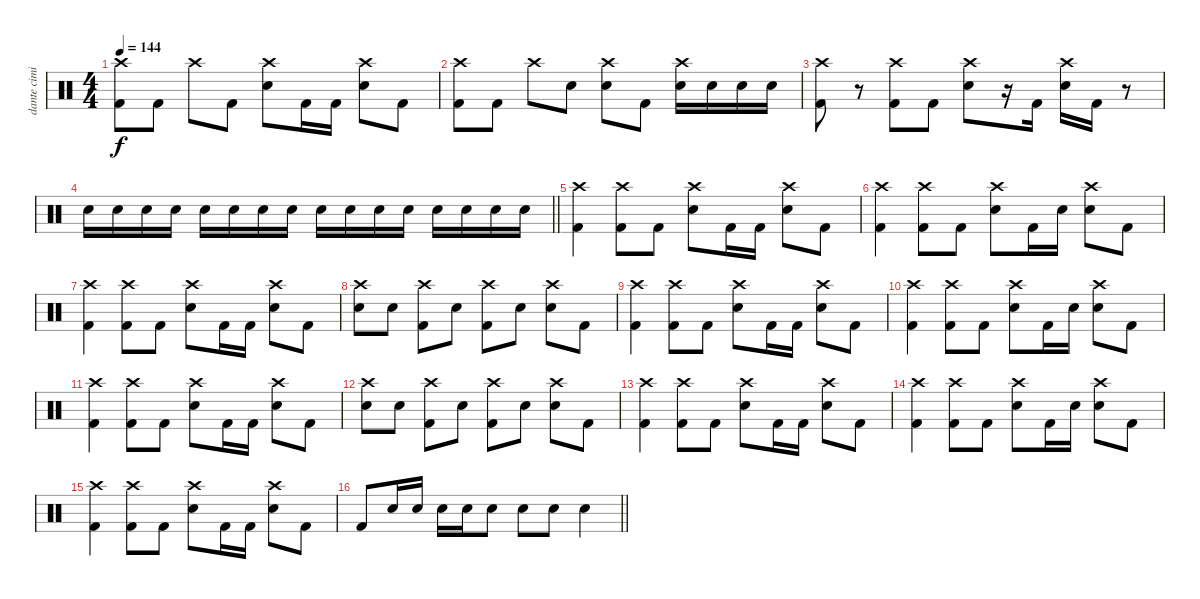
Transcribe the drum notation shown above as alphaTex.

\track ("dante cimino" "dante cimi") {instrument percussion}
\staff {score}
\articulation defaults
\ts (4 4)
\tempo 144
\clef neutral
\ks c
("Crash high (hit)" "Kick (hit) 2").8{dy f} "Kick (hit) 2".8 "Crash high (hit)".8 "Kick (hit) 2".8 ("Crash high (hit)" "Electric Snare (hit)").8 "Kick (hit) 2".16 "Kick (hit) 2".16 ("Crash high (hit)" "Electric Snare (hit)").8 "Kick (hit) 2".8 |
("Crash high (hit)" "Kick (hit) 2").8 "Kick (hit) 2".8 "Crash high (hit)".8 "Electric Snare (hit)".8 ("Crash high (hit)" "Electric Snare (hit)").8 "Kick (hit) 2".8 ("Crash high (hit)" "Electric Snare (hit)").16 "Electric Snare (hit)".16 "Electric Snare (hit)".16 "Electric Snare (hit)".16 |
("Crash high (hit)" "Kick (hit) 2").8 r.8 ("Crash high (hit)" "Kick (hit) 2").8 "Kick (hit) 2".8 ("Crash high (hit)" "Electric Snare (hit)").8 r.16 "Kick (hit) 2".16 ("Crash high (hit)" "Electric Snare (hit)").16 "Kick (hit) 2".16 r.8 |
\barLineRight lightlight "Electric Snare (hit)".16 "Electric Snare (hit)".16 "Electric Snare (hit)".16 "Electric Snare (hit)".16 "Electric Snare (hit)".16 "Electric Snare (hit)".16 "Electric Snare (hit)".16 "Electric Snare (hit)".16 "Electric Snare (hit)".16 "Electric Snare (hit)".16 "Electric Snare (hit)".16 "Electric Snare (hit)".16 "Electric Snare (hit)".16 "Electric Snare (hit)".16 "Electric Snare (hit)".16 "Electric Snare (hit)".16
|
\section ("" "")
("Crash high (hit)" "Kick (hit) 2").4 ("Crash high (hit)" "Kick (hit) 2").8 "Kick (hit) 2".8 ("Crash high (hit)" "Electric Snare (hit)").8 "Kick (hit) 2".16 "Kick (hit) 2".16 ("Crash high (hit)" "Electric Snare (hit)").8 "Kick (hit) 2".8 |
("Crash high (hit)" "Kick (hit) 2").4 ("Crash high (hit)" "Kick (hit) 2").8 "Kick (hit) 2".8 ("Crash high (hit)" "Electric Snare (hit)").8 "Kick (hit) 2".16 "Electric Snare (hit)".16 ("Crash high (hit)" "Electric Snare (hit)").8 "Kick (hit) 2".8 |
("Crash high (hit)" "Kick (hit) 2").4 ("Crash high (hit)" "Kick (hit) 2").8 "Kick (hit) 2".8 ("Crash high (hit)" "Electric Snare (hit)").8 "Kick (hit) 2".16 "Kick (hit) 2".16 ("Crash high (hit)" "Electric Snare (hit)").8 "Kick (hit) 2".8 |
("Crash high (hit)" "Electric Snare (hit)").8 "Electric Snare (hit)".8 ("Crash high (hit)" "Kick (hit) 2").8 "Electric Snare (hit)".8 ("Crash high (hit)" "Kick (hit) 2").8 "Electric Snare (hit)".8 ("Crash high (hit)" "Electric Snare (hit)").8 "Kick (hit) 2".8 |
("Crash high (hit)" "Kick (hit) 2").4 ("Crash high (hit)" "Kick (hit) 2").8 "Kick (hit) 2".8 ("Crash high (hit)" "Electric Snare (hit)").8 "Kick (hit) 2".16 "Kick (hit) 2".16 ("Crash high (hit)" "Electric Snare (hit)").8 "Kick (hit) 2".8 |
("Crash high (hit)" "Kick (hit) 2").4 ("Crash high (hit)" "Kick (hit) 2").8 "Kick (hit) 2".8 ("Crash high (hit)" "Electric Snare (hit)").8 "Kick (hit) 2".16 "Electric Snare (hit)".16 ("Crash high (hit)" "Electric Snare (hit)").8 "Kick (hit) 2".8 |
("Crash high (hit)" "Kick (hit) 2").4 ("Crash high (hit)" "Kick (hit) 2").8 "Kick (hit) 2".8 ("Crash high (hit)" "Electric Snare (hit)").8 "Kick (hit) 2".16 "Kick (hit) 2".16 ("Crash high (hit)" "Electric Snare (hit)").8 "Kick (hit) 2".8 |
("Crash high (hit)" "Electric Snare (hit)").8 "Electric Snare (hit)".8 ("Crash high (hit)" "Kick (hit) 2").8 "Electric Snare (hit)".8 ("Crash high (hit)" "Kick (hit) 2").8 "Electric Snare (hit)".8 ("Crash high (hit)" "Electric Snare (hit)").8 "Kick (hit) 2".8 |
("Crash high (hit)" "Kick (hit) 2").4 ("Crash high (hit)" "Kick (hit) 2").8 "Kick (hit) 2".8 ("Crash high (hit)" "Electric Snare (hit)").8 "Kick (hit) 2".16 "Kick (hit) 2".16 ("Crash high (hit)" "Electric Snare (hit)").8 "Kick (hit) 2".8 |
("Crash high (hit)" "Kick (hit) 2").4 ("Crash high (hit)" "Kick (hit) 2").8 "Kick (hit) 2".8 ("Crash high (hit)" "Electric Snare (hit)").8 "Kick (hit) 2".16 "Electric Snare (hit)".16 ("Crash high (hit)" "Electric Snare (hit)").8 "Kick (hit) 2".8 |
("Crash high (hit)" "Kick (hit) 2").4 ("Crash high (hit)" "Kick (hit) 2").8 "Kick (hit) 2".8 ("Crash high (hit)" "Electric Snare (hit)").8 "Kick (hit) 2".16 "Kick (hit) 2".16 ("Crash high (hit)" "Electric Snare (hit)").8 "Kick (hit) 2".8 |
\barLineRight lightlight "Kick (hit) 2".8 "Electric Snare (hit)".16 "Electric Snare (hit)".16 "Electric Snare (hit)".16 "Electric Snare (hit)".16 "Electric Snare (hit)".8 "Electric Snare (hit)".8 "Electric Snare (hit)".8 "Electric Snare (hit)".4
